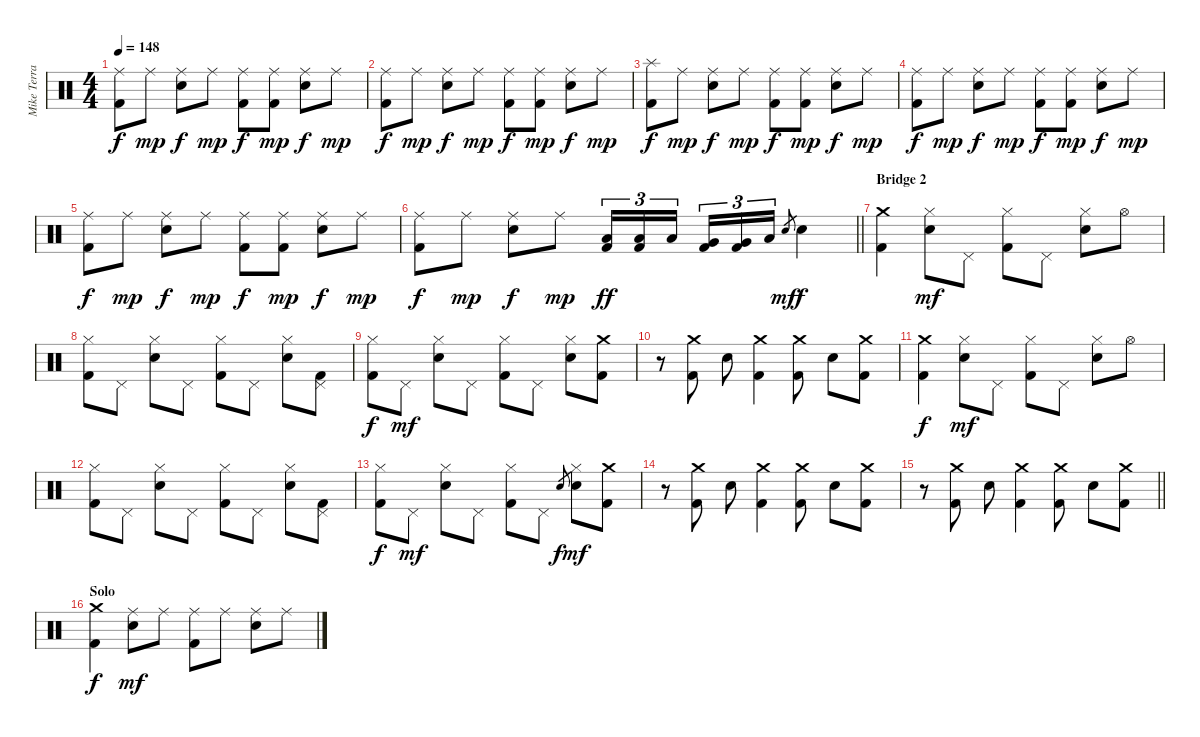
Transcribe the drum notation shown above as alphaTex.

\track ("Mike Terrana" "Mike Terra") {instrument percussion}
\staff {score}
\articulation defaults
\ts (4 4)
\tempo 148
\clef neutral
\ks c
("Ride (middle)" "Kick (hit) 2").8{dy f} "Ride (middle)".8{dy mp} ("Ride (middle)" "Snare (hit) 2").8{dy f} "Ride (middle)".8{dy mp} ("Ride (middle)" "Kick (hit) 2").8{dy f} ("Ride (middle)" "Kick (hit) 2").8{dy mp} ("Ride (middle)" "Snare (hit) 2").8{dy f} "Ride (middle)".8{dy mp} |
("Ride (middle)" "Kick (hit) 2").8{dy f} "Ride (middle)".8{dy mp} ("Ride (middle)" "Snare (hit) 2").8{dy f} "Ride (middle)".8{dy mp} ("Ride (middle)" "Kick (hit) 2").8{dy f} ("Ride (middle)" "Kick (hit) 2").8{dy mp} ("Ride (middle)" "Snare (hit) 2").8{dy f} "Ride (middle)".8{dy mp} |
("Splash (hit)" "Kick (hit) 2").8{dy f} "Ride (middle)".8{dy mp} ("Ride (middle)" "Snare (hit) 2").8{dy f} "Ride (middle)".8{dy mp} ("Ride (middle)" "Kick (hit) 2").8{dy f} ("Ride (middle)" "Kick (hit) 2").8{dy mp} ("Ride (middle)" "Snare (hit) 2").8{dy f} "Ride (middle)".8{dy mp} |
("Ride (middle)" "Kick (hit) 2").8{dy f} "Ride (middle)".8{dy mp} ("Ride (middle)" "Snare (hit) 2").8{dy f} "Ride (middle)".8{dy mp} ("Ride (middle)" "Kick (hit) 2").8{dy f} ("Ride (middle)" "Kick (hit) 2").8{dy mp} ("Ride (middle)" "Snare (hit) 2").8{dy f} "Ride (middle)".8{dy mp} |
("Ride (middle)" "Kick (hit) 2").8{dy f} "Ride (middle)".8{dy mp} ("Ride (middle)" "Snare (hit) 2").8{dy f} "Ride (middle)".8{dy mp} ("Ride (middle)" "Kick (hit) 2").8{dy f} ("Ride (middle)" "Kick (hit) 2").8{dy mp} ("Ride (middle)" "Snare (hit) 2").8{dy f} "Ride (middle)".8{dy mp} |
\barLineRight lightlight
("Ride (middle)" "Kick (hit) 2").8{dy f} "Ride (middle)".8{dy mp} ("Ride (middle)" "Snare (hit) 2").8{dy f} "Ride (middle)".8{dy mp} ("Low Tom (hit)" "Kick (hit) 2").16{tu (3 2) dy ff} ("Low Tom (hit)" "Kick (hit) 2").16{tu (3 2)} "Low Tom (hit)".16{tu (3 2) beam splitsecondary} ("Very Low Tom (hit)" "Kick (hit) 2").16{tu (3 2)} ("Very Low Tom (hit)" "Kick (hit) 2").16{tu (3 2)} "Low Floor Tom (hit)".16{tu (3 2)} "Snare (hit) 2".8{gr dy mf} "Snare (hit) 2".4{dy f} |
\section ("" "Bridge 2")
("Crash medium (hit)" "Kick (hit) 2").4 ("Hi-Hat (closed)" "Snare (hit) 2").8{dy mf} "Pedal Hi-Hat (hit)".8 ("Hi-Hat (closed)" "Kick (hit) 2").8 "Pedal Hi-Hat (hit)".8 ("Hi-Hat (closed)" "Snare (hit) 2").8 "Hi-Hat (open)".8 |
("Hi-Hat (closed)" "Kick (hit) 2").8 "Pedal Hi-Hat (hit)".8 ("Hi-Hat (closed)" "Snare (hit) 2").8 "Pedal Hi-Hat (hit)".8 ("Hi-Hat (closed)" "Kick (hit) 2").8 "Pedal Hi-Hat (hit)".8 ("Hi-Hat (closed)" "Snare (hit) 2").8 ("Pedal Hi-Hat (hit)" "Kick (hit) 2").8 |
("Hi-Hat (closed)" "Kick (hit) 2").8{dy f} "Pedal Hi-Hat (hit)".8{dy mf} ("Hi-Hat (closed)" "Snare (hit) 2").8 "Pedal Hi-Hat (hit)".8 ("Hi-Hat (closed)" "Kick (hit) 2").8 "Pedal Hi-Hat (hit)".8 ("Hi-Hat (closed)" "Snare (hit) 2").8 ("Crash medium (hit)" "Kick (hit) 2").8 |
r.8 ("Crash medium (hit)" "Kick (hit) 2").8 "Snare (hit) 2".8 ("Crash medium (hit)" "Kick (hit) 2").4 ("Crash medium (hit)" "Kick (hit) 2").8 "Snare (hit) 2".8 ("Crash medium (hit)" "Kick (hit) 2").8 |
("Crash medium (hit)" "Kick (hit) 2").4{dy f} ("Hi-Hat (closed)" "Snare (hit) 2").8{dy mf} "Pedal Hi-Hat (hit)".8 ("Hi-Hat (closed)" "Kick (hit) 2").8 "Pedal Hi-Hat (hit)".8 ("Hi-Hat (closed)" "Snare (hit) 2").8 "Hi-Hat (open)".8 |
("Hi-Hat (closed)" "Kick (hit) 2").8 "Pedal Hi-Hat (hit)".8 ("Hi-Hat (closed)" "Snare (hit) 2").8 "Pedal Hi-Hat (hit)".8 ("Hi-Hat (closed)" "Kick (hit) 2").8 "Pedal Hi-Hat (hit)".8 ("Hi-Hat (closed)" "Snare (hit) 2").8 ("Pedal Hi-Hat (hit)" "Kick (hit) 2").8 |
("Hi-Hat (closed)" "Kick (hit) 2").8{dy f} "Pedal Hi-Hat (hit)".8{dy mf} ("Hi-Hat (closed)" "Snare (hit) 2").8 "Pedal Hi-Hat (hit)".8 ("Hi-Hat (closed)" "Kick (hit) 2").8 "Pedal Hi-Hat (hit)".8 "Snare (hit) 2".8{gr dy f} ("Hi-Hat (closed)" "Snare (hit) 2").8{dy mf} ("Crash medium (hit)" "Kick (hit) 2").8 |
r.8 ("Crash medium (hit)" "Kick (hit) 2").8 "Snare (hit) 2".8 ("Crash medium (hit)" "Kick (hit) 2").4 ("Crash medium (hit)" "Kick (hit) 2").8 "Snare (hit) 2".8 ("Crash medium (hit)" "Kick (hit) 2").8 |
\barLineRight lightlight
r.8 ("Crash medium (hit)" "Kick (hit) 2").8 "Snare (hit) 2".8 ("Crash medium (hit)" "Kick (hit) 2").4 ("Crash medium (hit)" "Kick (hit) 2").8 "Snare (hit) 2".8 ("Crash medium (hit)" "Kick (hit) 2").8 |
\section ("" "Solo")
("Crash medium (hit)" "Kick (hit) 2").4{dy f} ("Ride (middle)" "Snare (hit) 2").8{dy mf} "Ride (middle)".8 ("Ride (middle)" "Kick (hit) 2").8 "Ride (middle)".8 ("Ride (middle)" "Snare (hit) 2").8 "Ride (middle)".8
